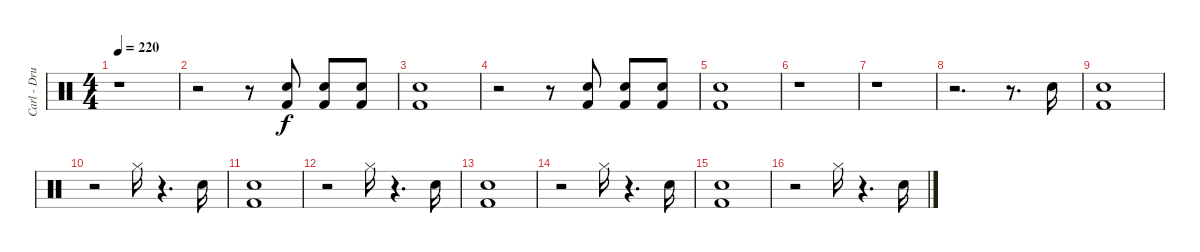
\track ("Carl - Drums" "Carl - Dru") {instrument percussion}
\staff {score}
\articulation defaults
\ts (4 4)
\tempo 220
\clef neutral
\ks c
r.1{dy f} |
r.2 r.8 ("Electric Snare (hit)" "Kick (hit) 2").8 ("Electric Snare (hit)" "Kick (hit) 2").8 ("Electric Snare (hit)" "Kick (hit) 2").8 |
("Electric Snare (hit)" "Kick (hit) 2").1 |
r.2 r.8 ("Electric Snare (hit)" "Kick (hit) 2").8 ("Electric Snare (hit)" "Kick (hit) 2").8 ("Electric Snare (hit)" "Kick (hit) 2").8 |
("Electric Snare (hit)" "Kick (hit) 2").1 |
r.1 |
r.1 |
r.2{d} r.8{d} "Electric Snare (hit)".16 |
("Electric Snare (hit)" "Kick (hit) 2").1 |
r.2 "Hi-Hat (closed)".16 r.4{d} "Electric Snare (hit)".16 |
("Electric Snare (hit)" "Kick (hit) 2").1 |
r.2 "Hi-Hat (closed)".16 r.4{d} "Electric Snare (hit)".16 |
("Electric Snare (hit)" "Kick (hit) 2").1 |
r.2 "Hi-Hat (closed)".16 r.4{d} "Electric Snare (hit)".16 |
("Electric Snare (hit)" "Kick (hit) 2").1 |
r.2 "Hi-Hat (closed)".16 r.4{d} "Electric Snare (hit)".16
